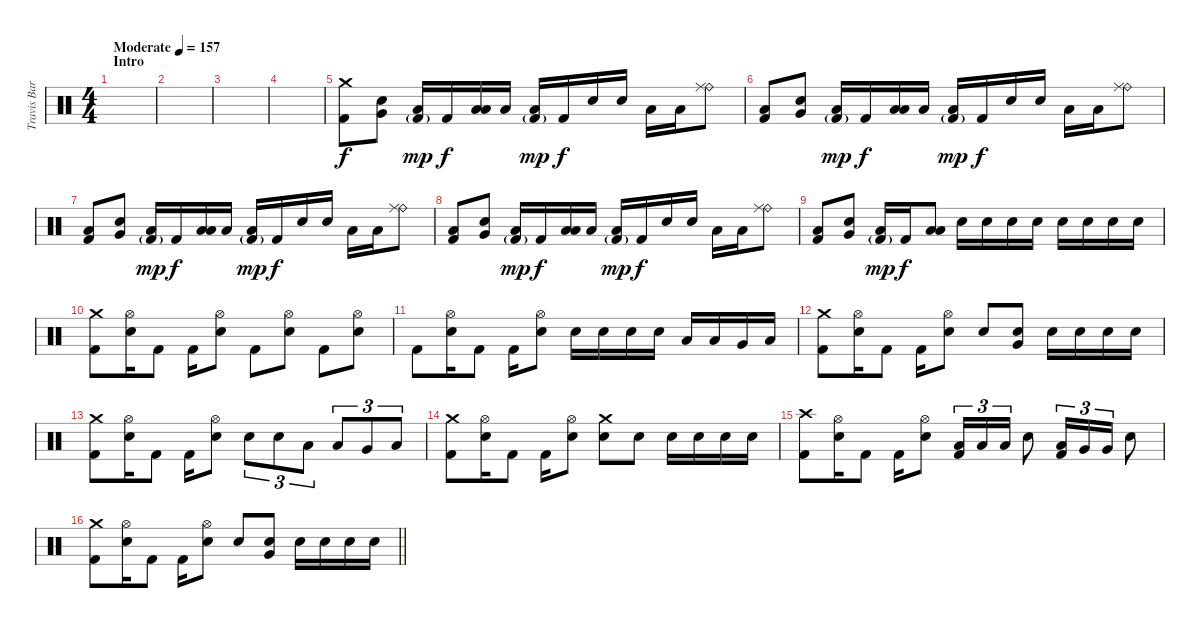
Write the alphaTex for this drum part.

\track ("Travis Barker - Drums" "Travis Bar") {instrument percussion}
\staff {score}
\articulation defaults
\ts (4 4)
\section ("" "Intro")
\tempo (157 "Moderate")
\clef neutral
\ks c
|
|
|
|
("Crash medium (hit)" "Kick (hit) 2").8 ("Electric Snare (hit)" "Very Low Tom (hit)").8 ("Low Floor Tom (hit)" "Kick (hit) 2"{g}).16{dy mp} "Kick (hit) 2".16{dy f} ("Low Tom (hit)" "Low Floor Tom (hit)").16 "Low Tom (hit)".16 ("Low Floor Tom (hit)" "Kick (hit) 2"{g}).16{dy mp} "Kick (hit) 2".16{dy f} "Electric Snare (hit)".16 "Electric Snare (hit)".16 "Low Tom (hit)".16 "Low Tom (hit)".16 ("Ride (bell)" "Ride (middle)").8 |
("Low Floor Tom (hit)" "Kick (hit) 2").8 ("Electric Snare (hit)" "Very Low Tom (hit)").8 ("Low Floor Tom (hit)" "Kick (hit) 2"{g}).16{dy mp} "Kick (hit) 2".16{dy f} ("Low Tom (hit)" "Low Floor Tom (hit)").16 "Low Tom (hit)".16 ("Low Floor Tom (hit)" "Kick (hit) 2"{g}).16{dy mp} "Kick (hit) 2".16{dy f} "Electric Snare (hit)".16 "Electric Snare (hit)".16 "Low Tom (hit)".16 "Low Tom (hit)".16 ("Ride (bell)" "Ride (middle)").8 |
("Low Floor Tom (hit)" "Kick (hit) 2").8 ("Electric Snare (hit)" "Very Low Tom (hit)").8 ("Low Floor Tom (hit)" "Kick (hit) 2"{g}).16{dy mp} "Kick (hit) 2".16{dy f} ("Low Tom (hit)" "Low Floor Tom (hit)").16 "Low Tom (hit)".16 ("Low Floor Tom (hit)" "Kick (hit) 2"{g}).16{dy mp} "Kick (hit) 2".16{dy f} "Electric Snare (hit)".16 "Electric Snare (hit)".16 "Low Tom (hit)".16 "Low Tom (hit)".16 ("Ride (bell)" "Ride (middle)").8 |
("Low Floor Tom (hit)" "Kick (hit) 2").8 ("Electric Snare (hit)" "Very Low Tom (hit)").8 ("Low Floor Tom (hit)" "Kick (hit) 2"{g}).16{dy mp} "Kick (hit) 2".16{dy f} ("Low Tom (hit)" "Low Floor Tom (hit)").16 "Low Tom (hit)".16 ("Low Floor Tom (hit)" "Kick (hit) 2"{g}).16{dy mp} "Kick (hit) 2".16{dy f} "Electric Snare (hit)".16 "Electric Snare (hit)".16 "Low Tom (hit)".16 "Low Tom (hit)".16 ("Ride (bell)" "Ride (middle)").8 |
("Low Floor Tom (hit)" "Kick (hit) 2").8 ("Electric Snare (hit)" "Very Low Tom (hit)").8 ("Low Floor Tom (hit)" "Kick (hit) 2"{g}).16{dy mp} "Kick (hit) 2".16{dy f} ("Low Tom (hit)" "Low Floor Tom (hit)").8 "Electric Snare (hit)".16 "Electric Snare (hit)".16 "Electric Snare (hit)".16 "Electric Snare (hit)".16 "Electric Snare (hit)".16 "Electric Snare (hit)".16 "Electric Snare (hit)".16 "Electric Snare (hit)".16 |
("Crash medium (hit)" "Kick (hit) 2").8 ("Hi-Hat (open)" "Electric Snare (hit)").16 "Kick (hit) 2".8 "Kick (hit) 2".16 ("Hi-Hat (open)" "Electric Snare (hit)").8 "Kick (hit) 2".8 ("Hi-Hat (open)" "Electric Snare (hit)").8 "Kick (hit) 2".8 ("Hi-Hat (open)" "Electric Snare (hit)").8 |
"Kick (hit) 2".8 ("Hi-Hat (open)" "Electric Snare (hit)").16 "Kick (hit) 2".8 "Kick (hit) 2".16 ("Hi-Hat (open)" "Electric Snare (hit)").8 "Electric Snare (hit)".16 "Electric Snare (hit)".16 "Electric Snare (hit)".16 "Electric Snare (hit)".16 "Low Tom (hit)".16 "Low Tom (hit)".16 "Very Low Tom (hit)".16 "Low Floor Tom (hit)".16 |
("Crash medium (hit)" "Kick (hit) 2").8 ("Hi-Hat (open)" "Electric Snare (hit)").16 "Kick (hit) 2".8 "Kick (hit) 2".16 ("Hi-Hat (open)" "Electric Snare (hit)").8 "Electric Snare (hit)".8 ("Very Low Tom (hit)" "Electric Snare (hit)").8 "Electric Snare (hit)".16 "Electric Snare (hit)".16 "Electric Snare (hit)".16 "Electric Snare (hit)".16 |
("Crash medium (hit)" "Kick (hit) 2").8 ("Hi-Hat (open)" "Electric Snare (hit)").16 "Kick (hit) 2".8 "Kick (hit) 2".16 ("Hi-Hat (open)" "Electric Snare (hit)").8 "Electric Snare (hit)".8{tu (3 2)} "Electric Snare (hit)".8{tu (3 2)} "Low Tom (hit)".8{tu (3 2)} "Low Tom (hit)".8{tu (3 2)} "Very Low Tom (hit)".8{tu (3 2)} "Low Floor Tom (hit)".8{tu (3 2)} |
("Crash medium (hit)" "Kick (hit) 2").8 ("Hi-Hat (open)" "Electric Snare (hit)").16 "Kick (hit) 2".8 "Kick (hit) 2".16 ("Hi-Hat (open)" "Electric Snare (hit)").8 ("Crash medium (hit)" "Electric Snare (hit)").8 "Electric Snare (hit)".8 "Electric Snare (hit)".16 "Electric Snare (hit)".16 "Electric Snare (hit)".16 "Electric Snare (hit)".16 |
("Crash high (hit)" "Kick (hit) 2").8 ("Hi-Hat (open)" "Electric Snare (hit)").16 "Kick (hit) 2".8 "Kick (hit) 2".16 ("Hi-Hat (open)" "Electric Snare (hit)").8 ("Low Tom (hit)" "Kick (hit) 2").16{tu (3 2)} "Low Tom (hit)".16{tu (3 2)} "Low Tom (hit)".16{tu (3 2)} "Electric Snare (hit)".8 ("Low Tom (hit)" "Kick (hit) 2").16{tu (3 2)} "Very Low Tom (hit)".16{tu (3 2)} "Very Low Tom (hit)".16{tu (3 2)} "Electric Snare (hit)".8 |
\barLineRight lightlight
("Crash medium (hit)" "Kick (hit) 2").8 ("Hi-Hat (open)" "Electric Snare (hit)").16 "Kick (hit) 2".8 "Kick (hit) 2".16 ("Hi-Hat (open)" "Electric Snare (hit)").8 "Electric Snare (hit)".8 ("Very Low Tom (hit)" "Electric Snare (hit)").8 "Electric Snare (hit)".16 "Electric Snare (hit)".16 "Electric Snare (hit)".16 "Electric Snare (hit)".16
